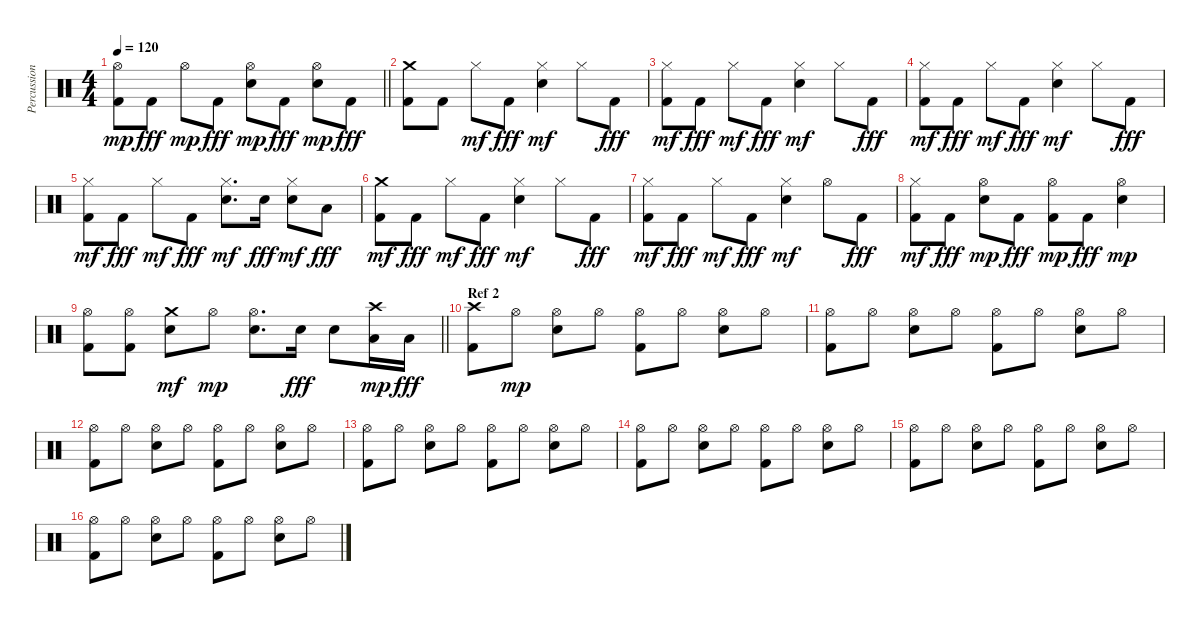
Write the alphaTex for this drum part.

\track ("Percussions" "Percussion") {instrument percussion}
\staff {score}
\articulation defaults
\ts (4 4)
\tempo 120
\clef neutral
\barLineRight lightlight
\ks c
("Kick (hit) 2" "Hi-Hat (open)").8{dy mp} "Kick (hit) 2".8{dy fff} "Hi-Hat (open)".8{dy mp} "Kick (hit) 2".8{dy fff} ("Electric Snare (hit)" "Hi-Hat (open)").8{dy mp} "Kick (hit) 2".8{dy fff} ("Electric Snare (hit)" "Hi-Hat (open)").8{dy mp} "Kick (hit) 2".8{dy fff} |
("Kick (hit) 2" "Crash medium (hit)").8 "Kick (hit) 2".8 "Hi-Hat (closed)".8{dy mf} "Kick (hit) 2".8{dy fff} ("Electric Snare (hit)" "Hi-Hat (closed)").4{dy mf} "Hi-Hat (closed)".8 "Kick (hit) 2".8{dy fff} |
("Kick (hit) 2" "Hi-Hat (closed)").8{dy mf} "Kick (hit) 2".8{dy fff} "Hi-Hat (closed)".8{dy mf} "Kick (hit) 2".8{dy fff} ("Electric Snare (hit)" "Hi-Hat (closed)").4{dy mf} "Hi-Hat (closed)".8 "Kick (hit) 2".8{dy fff} |
("Kick (hit) 2" "Hi-Hat (closed)").8{dy mf} "Kick (hit) 2".8{dy fff} "Hi-Hat (closed)".8{dy mf} "Kick (hit) 2".8{dy fff} ("Electric Snare (hit)" "Hi-Hat (closed)").4{dy mf} "Hi-Hat (closed)".8 "Kick (hit) 2".8{dy fff} |
("Kick (hit) 2" "Hi-Hat (closed)").8{dy mf} "Kick (hit) 2".8{dy fff} "Hi-Hat (closed)".8{dy mf} "Kick (hit) 2".8{dy fff} ("Electric Snare (hit)" "Hi-Hat (closed)").8{d dy mf} "Electric Snare (hit)".16{dy fff} ("Electric Snare (hit)" "Hi-Hat (closed)").8{dy mf} "Low Tom (hit)".8{dy fff} |
("Kick (hit) 2" "Crash medium (hit)").8{dy mf} "Kick (hit) 2".8{dy fff} "Hi-Hat (closed)".8{dy mf} "Kick (hit) 2".8{dy fff} ("Electric Snare (hit)" "Hi-Hat (closed)").4{dy mf} "Hi-Hat (closed)".8 "Kick (hit) 2".8{dy fff} |
("Kick (hit) 2" "Hi-Hat (closed)").8{dy mf} "Kick (hit) 2".8{dy fff} "Hi-Hat (closed)".8{dy mf} "Kick (hit) 2".8{dy fff} ("Electric Snare (hit)" "Hi-Hat (closed)").4{dy mf} "Hi-Hat (open)".8 "Kick (hit) 2".8{dy fff} |
("Kick (hit) 2" "Hi-Hat (closed)").8{dy mf} "Kick (hit) 2".8{dy fff} ("Electric Snare (hit)" "Hi-Hat (open)").8{dy mp} "Kick (hit) 2".8{dy fff} ("Kick (hit) 2" "Hi-Hat (open)").8{dy mp} "Kick (hit) 2".8{dy fff} ("Electric Snare (hit)" "Hi-Hat (open)").4{dy mp} |
\barLineRight lightlight
("Kick (hit) 2" "Hi-Hat (open)").8 ("Kick (hit) 2" "Hi-Hat (open)").8 ("Electric Snare (hit)" "Crash medium (hit)").8{dy mf} "Hi-Hat (open)".8{dy mp} ("Electric Snare (hit)" "Hi-Hat (open)").8{d} "Electric Snare (hit)".16{dy fff} "Electric Snare (hit)".8 ("Low Tom (hit)" "Crash high (hit)").16{dy mp} "Low Tom (hit)".16{dy fff} |
\section ("" "Ref 2")
("Kick (hit) 2" "Crash high (hit)").8 "Hi-Hat (open)".8{dy mp} ("Electric Snare (hit)" "Hi-Hat (open)").8 "Hi-Hat (open)".8 ("Kick (hit) 2" "Hi-Hat (open)").8 "Hi-Hat (open)".8 ("Electric Snare (hit)" "Hi-Hat (open)").8 "Hi-Hat (open)".8 |
("Kick (hit) 2" "Hi-Hat (open)").8 "Hi-Hat (open)".8 ("Electric Snare (hit)" "Hi-Hat (open)").8 "Hi-Hat (open)".8 ("Kick (hit) 2" "Hi-Hat (open)").8 "Hi-Hat (open)".8 ("Electric Snare (hit)" "Hi-Hat (open)").8 "Hi-Hat (open)".8 |
("Kick (hit) 2" "Hi-Hat (open)").8 "Hi-Hat (open)".8 ("Electric Snare (hit)" "Hi-Hat (open)").8 "Hi-Hat (open)".8 ("Kick (hit) 2" "Hi-Hat (open)").8 "Hi-Hat (open)".8 ("Electric Snare (hit)" "Hi-Hat (open)").8 "Hi-Hat (open)".8 |
("Kick (hit) 2" "Hi-Hat (open)").8 "Hi-Hat (open)".8 ("Electric Snare (hit)" "Hi-Hat (open)").8 "Hi-Hat (open)".8 ("Kick (hit) 2" "Hi-Hat (open)").8 "Hi-Hat (open)".8 ("Electric Snare (hit)" "Hi-Hat (open)").8 "Hi-Hat (open)".8 |
("Kick (hit) 2" "Hi-Hat (open)").8 "Hi-Hat (open)".8 ("Electric Snare (hit)" "Hi-Hat (open)").8 "Hi-Hat (open)".8 ("Kick (hit) 2" "Hi-Hat (open)").8 "Hi-Hat (open)".8 ("Electric Snare (hit)" "Hi-Hat (open)").8 "Hi-Hat (open)".8 |
("Kick (hit) 2" "Hi-Hat (open)").8 "Hi-Hat (open)".8 ("Electric Snare (hit)" "Hi-Hat (open)").8 "Hi-Hat (open)".8 ("Kick (hit) 2" "Hi-Hat (open)").8 "Hi-Hat (open)".8 ("Electric Snare (hit)" "Hi-Hat (open)").8 "Hi-Hat (open)".8 |
("Kick (hit) 2" "Hi-Hat (open)").8 "Hi-Hat (open)".8 ("Electric Snare (hit)" "Hi-Hat (open)").8 "Hi-Hat (open)".8 ("Kick (hit) 2" "Hi-Hat (open)").8 "Hi-Hat (open)".8 ("Electric Snare (hit)" "Hi-Hat (open)").8 "Hi-Hat (open)".8
